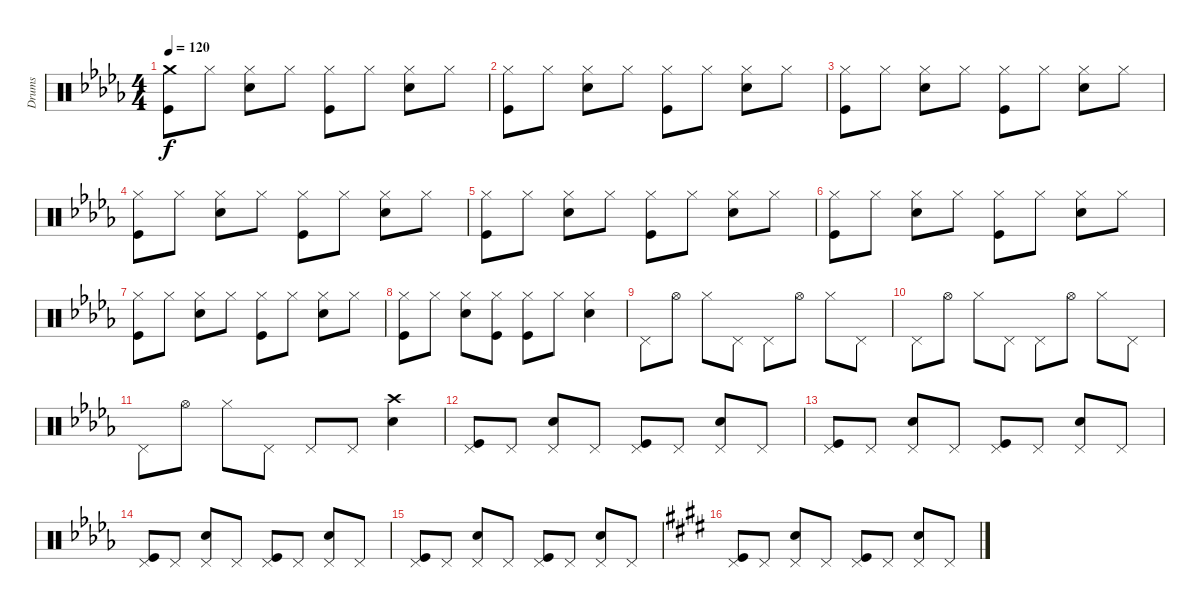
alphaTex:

\track ("Drums" "Drums") {instrument percussion}
\staff {score}
\articulation defaults
\ts (4 4)
\tempo 120
\clef neutral
\ks db
("Crash medium (hit)" "Kick (hit)").8{dy f} "Hi-Hat (closed)".8 ("Hi-Hat (closed)" "Snare (hit) 2").8 "Hi-Hat (closed)".8 ("Hi-Hat (closed)" "Kick (hit)").8 "Hi-Hat (closed)".8 ("Hi-Hat (closed)" "Snare (hit) 2").8 "Hi-Hat (closed)".8 |
("Hi-Hat (closed)" "Kick (hit)").8 "Hi-Hat (closed)".8 ("Hi-Hat (closed)" "Snare (hit) 2").8 "Hi-Hat (closed)".8 ("Hi-Hat (closed)" "Kick (hit)").8 "Hi-Hat (closed)".8 ("Hi-Hat (closed)" "Snare (hit) 2").8 "Hi-Hat (closed)".8 |
("Hi-Hat (closed)" "Kick (hit)").8 "Hi-Hat (closed)".8 ("Hi-Hat (closed)" "Snare (hit) 2").8 "Hi-Hat (closed)".8 ("Hi-Hat (closed)" "Kick (hit)").8 "Hi-Hat (closed)".8 ("Hi-Hat (closed)" "Snare (hit) 2").8 "Hi-Hat (closed)".8 |
("Hi-Hat (closed)" "Kick (hit)").8 "Hi-Hat (closed)".8 ("Hi-Hat (closed)" "Snare (hit) 2").8 "Hi-Hat (closed)".8 ("Hi-Hat (closed)" "Kick (hit)").8 "Hi-Hat (closed)".8 ("Hi-Hat (closed)" "Snare (hit) 2").8 "Hi-Hat (closed)".8 |
("Hi-Hat (closed)" "Kick (hit)").8 "Hi-Hat (closed)".8 ("Hi-Hat (closed)" "Snare (hit) 2").8 "Hi-Hat (closed)".8 ("Hi-Hat (closed)" "Kick (hit)").8 "Hi-Hat (closed)".8 ("Hi-Hat (closed)" "Snare (hit) 2").8 "Hi-Hat (closed)".8 |
("Hi-Hat (closed)" "Kick (hit)").8 "Hi-Hat (closed)".8 ("Hi-Hat (closed)" "Snare (hit) 2").8 "Hi-Hat (closed)".8 ("Hi-Hat (closed)" "Kick (hit)").8 "Hi-Hat (closed)".8 ("Hi-Hat (closed)" "Snare (hit) 2").8 "Hi-Hat (closed)".8 |
("Hi-Hat (closed)" "Kick (hit)").8 "Hi-Hat (closed)".8 ("Hi-Hat (closed)" "Snare (hit) 2").8 "Hi-Hat (closed)".8 ("Hi-Hat (closed)" "Kick (hit)").8 "Hi-Hat (closed)".8 ("Hi-Hat (closed)" "Snare (hit) 2").8 "Hi-Hat (closed)".8 |
("Hi-Hat (closed)" "Kick (hit)").8 "Hi-Hat (closed)".8 ("Hi-Hat (closed)" "Snare (hit) 2").8 ("Hi-Hat (closed)" "Kick (hit)").8 ("Hi-Hat (closed)" "Kick (hit)").8 "Hi-Hat (closed)".8 ("Hi-Hat (closed)" "Snare (hit) 2").4 |
"Pedal Hi-Hat (hit)".8 "Hi-Hat (open)".8 "Hi-Hat (closed)".8 "Pedal Hi-Hat (hit)".8 "Pedal Hi-Hat (hit)".8 "Hi-Hat (open)".8 "Hi-Hat (closed)".8 "Pedal Hi-Hat (hit)".8 |
"Pedal Hi-Hat (hit)".8 "Hi-Hat (open)".8 "Hi-Hat (closed)".8 "Pedal Hi-Hat (hit)".8 "Pedal Hi-Hat (hit)".8 "Hi-Hat (open)".8 "Hi-Hat (closed)".8 "Pedal Hi-Hat (hit)".8 |
"Pedal Hi-Hat (hit)".8 "Hi-Hat (open)".8 "Hi-Hat (closed)".8 "Pedal Hi-Hat (hit)".8 "Pedal Hi-Hat (hit)".8 "Pedal Hi-Hat (hit)".8 ("Crash high (hit)" "Snare (hit) 2").4 |
("Pedal Hi-Hat (hit)" "Kick (hit)").8 "Pedal Hi-Hat (hit)".8 ("Pedal Hi-Hat (hit)" "Snare (hit) 2").8 "Pedal Hi-Hat (hit)".8 ("Pedal Hi-Hat (hit)" "Kick (hit)").8 "Pedal Hi-Hat (hit)".8 ("Pedal Hi-Hat (hit)" "Snare (hit) 2").8 "Pedal Hi-Hat (hit)".8 |
("Pedal Hi-Hat (hit)" "Kick (hit)").8 "Pedal Hi-Hat (hit)".8 ("Pedal Hi-Hat (hit)" "Snare (hit) 2").8 "Pedal Hi-Hat (hit)".8 ("Pedal Hi-Hat (hit)" "Kick (hit)").8 "Pedal Hi-Hat (hit)".8 ("Pedal Hi-Hat (hit)" "Snare (hit) 2").8 "Pedal Hi-Hat (hit)".8 |
("Pedal Hi-Hat (hit)" "Kick (hit)").8 "Pedal Hi-Hat (hit)".8 ("Pedal Hi-Hat (hit)" "Snare (hit) 2").8 "Pedal Hi-Hat (hit)".8 ("Pedal Hi-Hat (hit)" "Kick (hit)").8 "Pedal Hi-Hat (hit)".8 ("Pedal Hi-Hat (hit)" "Snare (hit) 2").8 "Pedal Hi-Hat (hit)".8 |
("Pedal Hi-Hat (hit)" "Kick (hit)").8 "Pedal Hi-Hat (hit)".8 ("Pedal Hi-Hat (hit)" "Snare (hit) 2").8 "Pedal Hi-Hat (hit)".8 ("Pedal Hi-Hat (hit)" "Kick (hit)").8 "Pedal Hi-Hat (hit)".8 ("Pedal Hi-Hat (hit)" "Snare (hit) 2").8 "Pedal Hi-Hat (hit)".8 |
\ks e
("Pedal Hi-Hat (hit)" "Kick (hit)").8 "Pedal Hi-Hat (hit)".8 ("Pedal Hi-Hat (hit)" "Snare (hit) 2").8 "Pedal Hi-Hat (hit)".8 ("Pedal Hi-Hat (hit)" "Kick (hit)").8 "Pedal Hi-Hat (hit)".8 ("Pedal Hi-Hat (hit)" "Snare (hit) 2").8 "Pedal Hi-Hat (hit)".8
